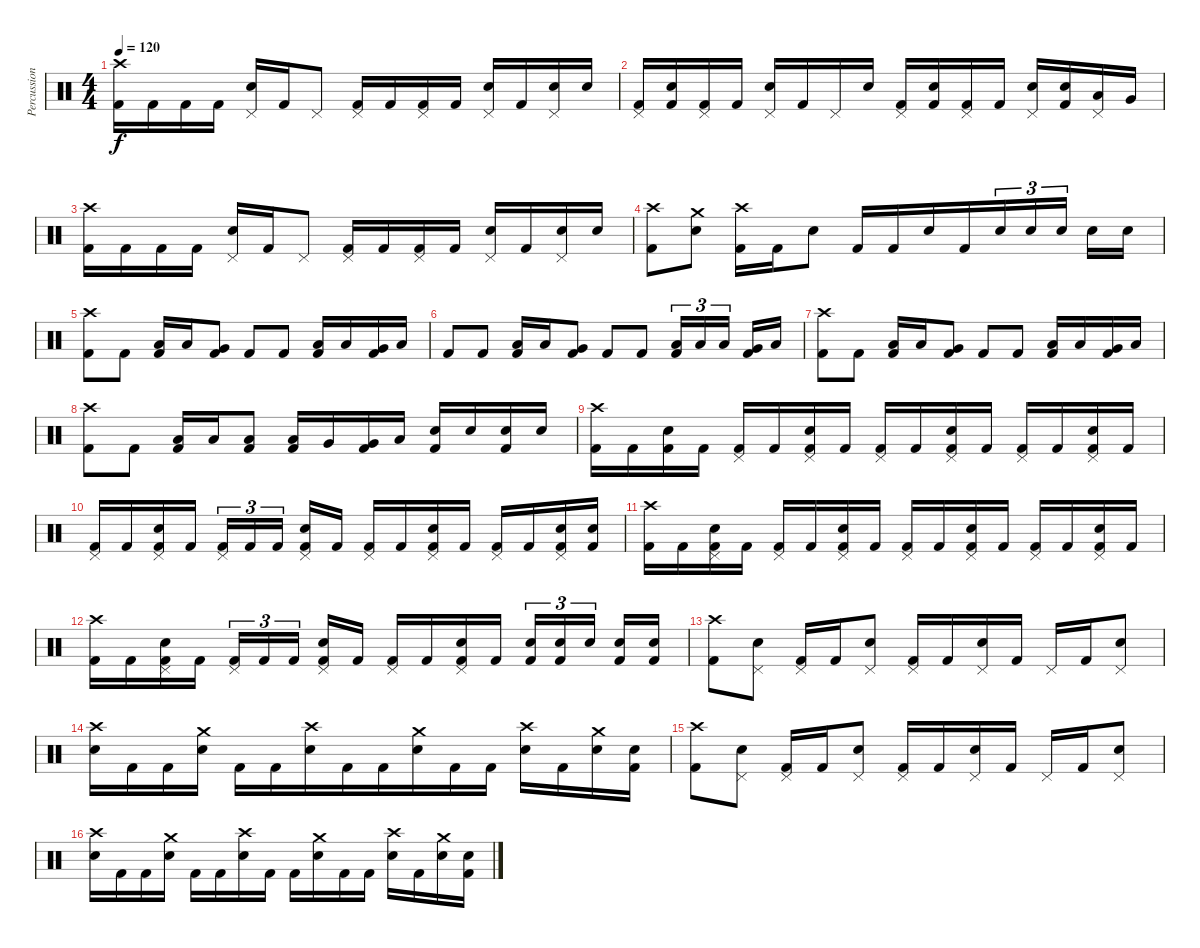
\track ("Percussion" "Percussion") {instrument percussion}
\staff {score}
\articulation defaults
\ts (4 4)
\tempo 120
\clef neutral
\ks c
("Crash high (hit)" "Kick (hit) 2").16{dy f} "Kick (hit) 2".16 "Kick (hit) 2".16 "Kick (hit) 2".16 ("Pedal Hi-Hat (hit)" "Electric Snare (hit)").16 "Kick (hit) 2".16 "Pedal Hi-Hat (hit)".8 ("Pedal Hi-Hat (hit)" "Kick (hit) 2").16 "Kick (hit) 2".16 ("Pedal Hi-Hat (hit)" "Kick (hit) 2").16 "Kick (hit) 2".16 ("Pedal Hi-Hat (hit)" "Electric Snare (hit)").16 "Kick (hit) 2".16 ("Pedal Hi-Hat (hit)" "Electric Snare (hit)").16 "Electric Snare (hit)".16 |
("Pedal Hi-Hat (hit)" "Kick (hit) 2").16 ("Electric Snare (hit)" "Kick (hit) 2").16 ("Pedal Hi-Hat (hit)" "Kick (hit) 2").16 "Kick (hit) 2".16 ("Pedal Hi-Hat (hit)" "Electric Snare (hit)").16 "Kick (hit) 2".16 "Pedal Hi-Hat (hit)".16 "Electric Snare (hit)".16 ("Pedal Hi-Hat (hit)" "Kick (hit) 2").16 ("Electric Snare (hit)" "Kick (hit) 2").16 ("Pedal Hi-Hat (hit)" "Kick (hit) 2").16 "Kick (hit) 2".16 ("Pedal Hi-Hat (hit)" "Electric Snare (hit)").16 ("Electric Snare (hit)" "Kick (hit) 2").16 ("Pedal Hi-Hat (hit)" "Low Tom (hit)").16 "Very Low Tom (hit)".16 |
("Crash high (hit)" "Kick (hit) 2").16 "Kick (hit) 2".16 "Kick (hit) 2".16 "Kick (hit) 2".16 ("Pedal Hi-Hat (hit)" "Electric Snare (hit)").16 "Kick (hit) 2".16 "Pedal Hi-Hat (hit)".8 ("Pedal Hi-Hat (hit)" "Kick (hit) 2").16 "Kick (hit) 2".16 ("Pedal Hi-Hat (hit)" "Kick (hit) 2").16 "Kick (hit) 2".16 ("Pedal Hi-Hat (hit)" "Electric Snare (hit)").16 "Kick (hit) 2".16 ("Pedal Hi-Hat (hit)" "Electric Snare (hit)").16 "Electric Snare (hit)".16 |
("Crash high (hit)" "Kick (hit) 2").8 ("Crash medium (hit)" "Electric Snare (hit)").8 ("Crash high (hit)" "Kick (hit) 2").16 "Kick (hit) 2".16 "Electric Snare (hit)".8 "Kick (hit) 2".16 "Kick (hit) 2".16 "Electric Snare (hit)".16 "Kick (hit) 2".16{beam merge} "Electric Snare (hit)".16{tu (3 2)} "Electric Snare (hit)".16{tu (3 2)} "Electric Snare (hit)".16{tu (3 2) beam split} "Electric Snare (hit)".16 "Electric Snare (hit)".16 |
("Crash high (hit)" "Kick (hit) 2").8 "Kick (hit) 2".8 ("Low Tom (hit)" "Kick (hit) 2").16 "Low Tom (hit)".16 ("Very Low Tom (hit)" "Kick (hit) 2").8 "Kick (hit) 2".8 "Kick (hit) 2".8 ("Low Tom (hit)" "Kick (hit) 2").16 "Low Tom (hit)".16 ("Very Low Tom (hit)" "Kick (hit) 2").16 "Low Floor Tom (hit)".16 |
"Kick (hit) 2".8 "Kick (hit) 2".8 ("Low Tom (hit)" "Kick (hit) 2").16 "Low Tom (hit)".16 ("Very Low Tom (hit)" "Kick (hit) 2").8 "Kick (hit) 2".8 "Kick (hit) 2".8 ("Low Tom (hit)" "Kick (hit) 2").16{tu (3 2)} "Low Tom (hit)".16{tu (3 2)} "Low Tom (hit)".16{tu (3 2) beam splitsecondary} ("Very Low Tom (hit)" "Kick (hit) 2").16 "Low Floor Tom (hit)".16 |
("Crash high (hit)" "Kick (hit) 2").8 "Kick (hit) 2".8 ("Low Tom (hit)" "Kick (hit) 2").16 "Low Tom (hit)".16 ("Very Low Tom (hit)" "Kick (hit) 2").8 "Kick (hit) 2".8 "Kick (hit) 2".8 ("Low Tom (hit)" "Kick (hit) 2").16 "Low Tom (hit)".16 ("Very Low Tom (hit)" "Kick (hit) 2").16 "Low Floor Tom (hit)".16 |
("Crash high (hit)" "Kick (hit) 2").8 "Kick (hit) 2".8 ("Low Tom (hit)" "Kick (hit) 2").16 "Low Tom (hit)".16 ("Low Tom (hit)" "Kick (hit) 2").8 ("Low Tom (hit)" "Kick (hit) 2").16 "Very Low Tom (hit)".16 ("Very Low Tom (hit)" "Kick (hit) 2").16 "Low Floor Tom (hit)".16 ("Electric Snare (hit)" "Kick (hit) 2").16 "Electric Snare (hit)".16 ("Electric Snare (hit)" "Kick (hit) 2").16 "Electric Snare (hit)".16 |
("Crash high (hit)" "Kick (hit) 2").16 "Kick (hit) 2".16 ("Electric Snare (hit)" "Kick (hit) 2").16 "Kick (hit) 2".16 ("Pedal Hi-Hat (hit)" "Kick (hit) 2").16 "Kick (hit) 2".16 ("Pedal Hi-Hat (hit)" "Electric Snare (hit)" "Kick (hit) 2").16 "Kick (hit) 2".16 ("Pedal Hi-Hat (hit)" "Kick (hit) 2").16 "Kick (hit) 2".16 ("Pedal Hi-Hat (hit)" "Electric Snare (hit)" "Kick (hit) 2").16 "Kick (hit) 2".16 ("Pedal Hi-Hat (hit)" "Kick (hit) 2").16 "Kick (hit) 2".16 ("Pedal Hi-Hat (hit)" "Electric Snare (hit)" "Kick (hit) 2").16 "Kick (hit) 2".16 |
("Pedal Hi-Hat (hit)" "Kick (hit) 2").16 "Kick (hit) 2".16 ("Pedal Hi-Hat (hit)" "Electric Snare (hit)" "Kick (hit) 2").16 "Kick (hit) 2".16 ("Pedal Hi-Hat (hit)" "Kick (hit) 2").16{tu (3 2)} "Kick (hit) 2".16{tu (3 2)} "Kick (hit) 2".16{tu (3 2) beam splitsecondary} ("Pedal Hi-Hat (hit)" "Electric Snare (hit)" "Kick (hit) 2").16 "Kick (hit) 2".16 ("Pedal Hi-Hat (hit)" "Kick (hit) 2").16 "Kick (hit) 2".16 ("Pedal Hi-Hat (hit)" "Electric Snare (hit)" "Kick (hit) 2").16 "Kick (hit) 2".16 ("Pedal Hi-Hat (hit)" "Kick (hit) 2").16 "Kick (hit) 2".16 ("Pedal Hi-Hat (hit)" "Electric Snare (hit)" "Kick (hit) 2").16 ("Electric Snare (hit)" "Kick (hit) 2").16 |
("Crash high (hit)" "Kick (hit) 2").16 "Kick (hit) 2".16 ("Pedal Hi-Hat (hit)" "Electric Snare (hit)" "Kick (hit) 2").16 "Kick (hit) 2".16 ("Pedal Hi-Hat (hit)" "Kick (hit) 2").16 "Kick (hit) 2".16 ("Pedal Hi-Hat (hit)" "Electric Snare (hit)" "Kick (hit) 2").16 "Kick (hit) 2".16 ("Pedal Hi-Hat (hit)" "Kick (hit) 2").16 "Kick (hit) 2".16 ("Pedal Hi-Hat (hit)" "Electric Snare (hit)" "Kick (hit) 2").16 "Kick (hit) 2".16 ("Pedal Hi-Hat (hit)" "Kick (hit) 2").16 "Kick (hit) 2".16 ("Pedal Hi-Hat (hit)" "Electric Snare (hit)" "Kick (hit) 2").16 "Kick (hit) 2".16 |
("Crash high (hit)" "Kick (hit) 2").16 "Kick (hit) 2".16 ("Pedal Hi-Hat (hit)" "Electric Snare (hit)" "Kick (hit) 2").16 "Kick (hit) 2".16 ("Pedal Hi-Hat (hit)" "Kick (hit) 2").16{tu (3 2)} "Kick (hit) 2".16{tu (3 2)} "Kick (hit) 2".16{tu (3 2) beam splitsecondary} ("Pedal Hi-Hat (hit)" "Electric Snare (hit)" "Kick (hit) 2").16 "Kick (hit) 2".16 ("Pedal Hi-Hat (hit)" "Kick (hit) 2").16 "Kick (hit) 2".16 ("Pedal Hi-Hat (hit)" "Electric Snare (hit)" "Kick (hit) 2").16 "Kick (hit) 2".16 ("Electric Snare (hit)" "Kick (hit) 2").16{tu (3 2)} ("Electric Snare (hit)" "Kick (hit) 2").16{tu (3 2)} "Electric Snare (hit)".16{tu (3 2) beam splitsecondary} ("Electric Snare (hit)" "Kick (hit) 2").16 ("Electric Snare (hit)" "Kick (hit) 2").16 |
("Crash high (hit)" "Kick (hit) 2").8 ("Pedal Hi-Hat (hit)" "Electric Snare (hit)").8 ("Pedal Hi-Hat (hit)" "Kick (hit) 2").16 "Kick (hit) 2".16 ("Pedal Hi-Hat (hit)" "Electric Snare (hit)").8 ("Pedal Hi-Hat (hit)" "Kick (hit) 2").16 "Kick (hit) 2".16 ("Pedal Hi-Hat (hit)" "Electric Snare (hit)").16 "Kick (hit) 2".16 "Pedal Hi-Hat (hit)".16 "Kick (hit) 2".16 ("Pedal Hi-Hat (hit)" "Electric Snare (hit)").8 |
("Crash high (hit)" "Electric Snare (hit)").16 "Kick (hit) 2".16 "Kick (hit) 2".16 ("Crash medium (hit)" "Electric Snare (hit)").16 "Kick (hit) 2".16 "Kick (hit) 2".16 ("Crash high (hit)" "Electric Snare (hit)").16 "Kick (hit) 2".16{beam merge} "Kick (hit) 2".16 ("Crash medium (hit)" "Electric Snare (hit)").16 "Kick (hit) 2".16 "Kick (hit) 2".16 ("Crash high (hit)" "Electric Snare (hit)").16 "Kick (hit) 2".16 ("Crash medium (hit)" "Electric Snare (hit)").16 ("Electric Snare (hit)" "Kick (hit) 2").16 |
("Crash high (hit)" "Kick (hit) 2").8 ("Pedal Hi-Hat (hit)" "Electric Snare (hit)").8 ("Pedal Hi-Hat (hit)" "Kick (hit) 2").16 "Kick (hit) 2".16 ("Pedal Hi-Hat (hit)" "Electric Snare (hit)").8 ("Pedal Hi-Hat (hit)" "Kick (hit) 2").16 "Kick (hit) 2".16 ("Pedal Hi-Hat (hit)" "Electric Snare (hit)").16 "Kick (hit) 2".16 "Pedal Hi-Hat (hit)".16 "Kick (hit) 2".16 ("Pedal Hi-Hat (hit)" "Electric Snare (hit)").8 |
("Crash high (hit)" "Electric Snare (hit)").16 "Kick (hit) 2".16 "Kick (hit) 2".16 ("Crash medium (hit)" "Electric Snare (hit)").16 "Kick (hit) 2".16 "Kick (hit) 2".16 ("Crash high (hit)" "Electric Snare (hit)").16 "Kick (hit) 2".16 "Kick (hit) 2".16 ("Crash medium (hit)" "Electric Snare (hit)").16 "Kick (hit) 2".16 "Kick (hit) 2".16 ("Crash high (hit)" "Electric Snare (hit)").16 "Kick (hit) 2".16 ("Crash medium (hit)" "Electric Snare (hit)").16 ("Electric Snare (hit)" "Kick (hit) 2").16
